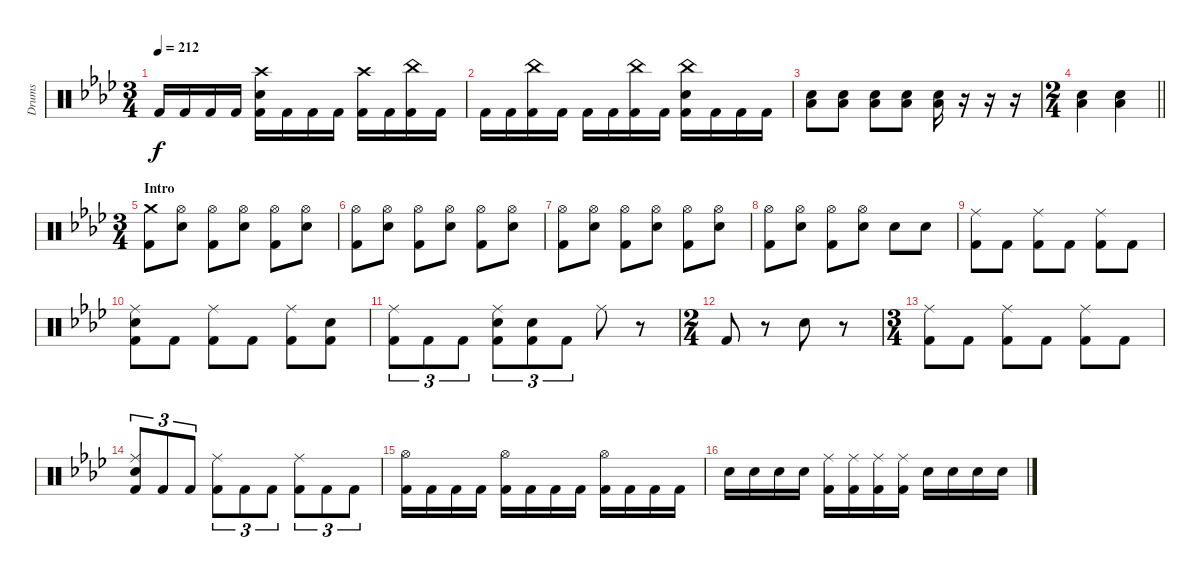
\bracketExtendMode groupsimilarinstruments
\otherSystemsTrackNameOrientation horizontal
\track ("Guyot Begin-Benoit" "Drums") {instrument percussion}
\staff {score}
\articulation defaults
\ts (3 4)
\tempo 212
\clef neutral
\ks ab "Kick (hit) 2"{acc forcenatural}.16{dy f beam Up} "Kick (hit) 2"{acc forcenatural}.16{beam Up} "Kick (hit) 2"{acc forcenatural}.16{beam Up} "Kick (hit) 2"{acc forcenatural}.16{beam Up}
("Crash high (hit)"{acc forcenatural} "Snare (hit) 2"{acc forcenatural} "Kick (hit) 2"{acc forcenatural}).16{beam Down} "Kick (hit) 2"{acc forcenatural}.16{beam Down} "Kick (hit) 2"{acc forcenatural}.16{beam Down} "Kick (hit) 2"{acc forcenatural}.16{beam Down} ("Crash high (hit)"{acc forcenatural} "Kick (hit) 2"{acc forcenatural}).16{beam Down} "Kick (hit) 2"{acc forcenatural}.16{beam Down} ("China (hit)"{acc forcenatural} "Kick (hit) 2"{acc forcenatural}).16{beam Down} "Kick (hit) 2"{acc forcenatural}.16{beam Down} |
"Kick (hit) 2"{acc forcenatural}.16{beam Down} "Kick (hit) 2"{acc forcenatural}.16{beam Down} ("China (hit)"{acc forcenatural} "Kick (hit) 2"{acc forcenatural}).16{beam Down} "Kick (hit) 2"{acc forcenatural}.16{beam Down} "Kick (hit) 2"{acc forcenatural}.16{beam Down} "Kick (hit) 2"{acc forcenatural}.16{beam Down} ("China (hit)"{acc forcenatural} "Kick (hit) 2"{acc forcenatural}).16{beam Down} "Kick (hit) 2"{acc forcenatural}.16{beam Down} ("China (hit)"{acc forcenatural} "Snare (hit) 2"{acc forcenatural} "Kick (hit) 2"{acc forcenatural}).16{beam Down} "Kick (hit) 2"{acc forcenatural}.16{beam Down} "Kick (hit) 2"{acc forcenatural}.16{beam Down} "Kick (hit) 2"{acc forcenatural}.16{beam Down} |
("Low Tom (hit)"{acc forcenatural} "Snare (hit) 2"{acc forcenatural}).8{beam Down} ("Low Tom (hit)"{acc forcenatural} "Snare (hit) 2"{acc forcenatural}).8{beam Down} ("Low Tom (hit)"{acc forcenatural} "Snare (hit) 2"{acc forcenatural}).8{beam Down} ("Low Tom (hit)"{acc forcenatural} "Snare (hit) 2"{acc forcenatural}).8{beam Down} ("Low Tom (hit)"{acc forcenatural} "Snare (hit) 2"{acc forcenatural}).16{beam Down} r.16{beam Down} r.16{beam Down} r.16{beam Down} |
\ts (2 4)
\beaming (8 2 2 2 2)
\barLineRight lightlight
("Low Tom (hit)"{acc forcenatural} "Snare (hit) 2"{acc forcenatural}).4{beam Down} ("Low Tom (hit)"{acc forcenatural} "Snare (hit) 2"{acc forcenatural}).4{beam Down} |
\ts (3 4)
\beaming (8 2 2 2 2)
\section ("" "Intro")
("Crash medium (hit)"{acc forcenatural} "Kick (hit) 2"{acc forcenatural}).8{beam Down} ("Hi-Hat (open)"{acc forcenatural} "Snare (hit) 2"{acc forcenatural}).8{beam Down} ("Hi-Hat (open)"{acc forcenatural} "Kick (hit) 2"{acc forcenatural}).8{beam Down} ("Hi-Hat (open)"{acc forcenatural} "Snare (hit) 2"{acc forcenatural}).8{beam Down} ("Hi-Hat (open)"{acc forcenatural} "Kick (hit) 2"{acc forcenatural}).8{beam Down} ("Hi-Hat (open)"{acc forcenatural} "Snare (hit) 2"{acc forcenatural}).8{beam Down} |
("Hi-Hat (open)"{acc forcenatural} "Kick (hit) 2"{acc forcenatural}).8{beam Down} ("Hi-Hat (open)"{acc forcenatural} "Snare (hit) 2"{acc forcenatural}).8{beam Down} ("Hi-Hat (open)"{acc forcenatural} "Kick (hit) 2"{acc forcenatural}).8{beam Down} ("Hi-Hat (open)"{acc forcenatural} "Snare (hit) 2"{acc forcenatural}).8{beam Down} ("Hi-Hat (open)"{acc forcenatural} "Kick (hit) 2"{acc forcenatural}).8{beam Down} ("Hi-Hat (open)"{acc forcenatural} "Snare (hit) 2"{acc forcenatural}).8{beam Down} |
("Hi-Hat (open)"{acc forcenatural} "Kick (hit) 2"{acc forcenatural}).8{beam Down} ("Hi-Hat (open)"{acc forcenatural} "Snare (hit) 2"{acc forcenatural}).8{beam Down} ("Hi-Hat (open)"{acc forcenatural} "Kick (hit) 2"{acc forcenatural}).8{beam Down} ("Hi-Hat (open)"{acc forcenatural} "Snare (hit) 2"{acc forcenatural}).8{beam Down} ("Hi-Hat (open)"{acc forcenatural} "Kick (hit) 2"{acc forcenatural}).8{beam Down} ("Hi-Hat (open)"{acc forcenatural} "Snare (hit) 2"{acc forcenatural}).8{beam Down} |
("Hi-Hat (open)"{acc forcenatural} "Kick (hit) 2"{acc forcenatural}).8{beam Down} ("Hi-Hat (open)"{acc forcenatural} "Snare (hit) 2"{acc forcenatural}).8{beam Down} ("Hi-Hat (open)"{acc forcenatural} "Kick (hit) 2"{acc forcenatural}).8{beam Down} ("Hi-Hat (open)"{acc forcenatural} "Snare (hit) 2"{acc forcenatural}).8{beam Down} "Snare (hit) 2"{acc forcenatural}.8{beam Down} "Snare (hit) 2"{acc forcenatural}.8{beam Down} |
("Ride (middle)"{acc forcenatural} "Kick (hit) 2"{acc forcenatural}).8{beam Down} "Kick (hit) 2"{acc forcenatural}.8{beam Down} ("Ride (middle)"{acc forcenatural} "Kick (hit) 2"{acc forcenatural}).8{beam Down} "Kick (hit) 2"{acc forcenatural}.8{beam Down} ("Ride (middle)"{acc forcenatural} "Kick (hit) 2"{acc forcenatural}).8{beam Down} "Kick (hit) 2"{acc forcenatural}.8{beam Down} |
("Ride (middle)"{acc forcenatural} "Snare (hit) 2"{acc forcenatural} "Kick (hit) 2"{acc forcenatural}).8{beam Down} "Kick (hit) 2"{acc forcenatural}.8{beam Down} ("Ride (middle)"{acc forcenatural} "Kick (hit) 2"{acc forcenatural}).8{beam Down} "Kick (hit) 2"{acc forcenatural}.8{beam Down} ("Ride (middle)"{acc forcenatural} "Kick (hit) 2"{acc forcenatural}).8{beam Down} ("Snare (hit) 2"{acc forcenatural} "Kick (hit) 2"{acc forcenatural}).8{beam Down} |
("Ride (middle)"{acc forcenatural} "Kick (hit) 2"{acc forcenatural}).8{tu (3 2) beam Down} "Kick (hit) 2"{acc forcenatural}.8{tu (3 2) beam Down} "Kick (hit) 2"{acc forcenatural}.8{tu (3 2) beam Down} ("Ride (middle)"{acc forcenatural} "Snare (hit) 2"{acc forcenatural} "Kick (hit) 2"{acc forcenatural}).8{tu (3 2) beam Down} ("Snare (hit) 2"{acc forcenatural} "Kick (hit) 2"{acc forcenatural}).8{tu (3 2) beam Down} "Kick (hit) 2"{acc forcenatural}.8{tu (3 2) beam Down} "Ride (middle)"{acc forcenatural}.8{beam Down} r.8{beam Down} |
\ts (2 4)
\beaming (8 2 2 2 2)
"Kick (hit) 2"{acc forcenatural}.8{beam Up} r.8{beam Up} "Snare (hit) 2"{acc forcenatural}.8{beam Down} r.8{beam Down} |
\ts (3 4)
\beaming (8 2 2 2 2)
("Ride (middle)"{acc forcenatural} "Kick (hit) 2"{acc forcenatural}).8{beam Down} "Kick (hit) 2"{acc forcenatural}.8{beam Down} ("Ride (middle)"{acc forcenatural} "Kick (hit) 2"{acc forcenatural}).8{beam Down} "Kick (hit) 2"{acc forcenatural}.8{beam Down} ("Ride (middle)"{acc forcenatural} "Kick (hit) 2"{acc forcenatural}).8{beam Down} "Kick (hit) 2"{acc forcenatural}.8{beam Down} |
("Ride (middle)"{acc forcenatural} "Snare (hit) 2"{acc forcenatural} "Kick (hit) 2"{acc forcenatural}).8{tu (3 2) beam Up} "Kick (hit) 2"{acc forcenatural}.8{tu (3 2) beam Up} "Kick (hit) 2"{acc forcenatural}.8{tu (3 2) beam Up} ("Ride (middle)"{acc forcenatural} "Kick (hit) 2"{acc forcenatural}).8{tu (3 2) beam Down} "Kick (hit) 2"{acc forcenatural}.8{tu (3 2) beam Down} "Kick (hit) 2"{acc forcenatural}.8{tu (3 2) beam Down} ("Ride (middle)"{acc forcenatural} "Kick (hit) 2"{acc forcenatural}).8{tu (3 2) beam Down} "Kick (hit) 2"{acc forcenatural}.8{tu (3 2) beam Down} "Kick (hit) 2"{acc forcenatural}.8{tu (3 2) beam Down} |
("Hi-Hat (open)"{acc forcenatural} "Kick (hit) 2"{acc forcenatural}).16{beam Down} "Kick (hit) 2"{acc forcenatural}.16{beam Down} "Kick (hit) 2"{acc forcenatural}.16{beam Down} "Kick (hit) 2"{acc forcenatural}.16{beam Down} ("Hi-Hat (open)"{acc forcenatural} "Kick (hit) 2"{acc forcenatural}).16{beam Down} "Kick (hit) 2"{acc forcenatural}.16{beam Down} "Kick (hit) 2"{acc forcenatural}.16{beam Down} "Kick (hit) 2"{acc forcenatural}.16{beam Down} ("Hi-Hat (open)"{acc forcenatural} "Kick (hit) 2"{acc forcenatural}).16{beam Down} "Kick (hit) 2"{acc forcenatural}.16{beam Down} "Kick (hit) 2"{acc forcenatural}.16{beam Down} "Kick (hit) 2"{acc forcenatural}.16{beam Down} |
"Snare (hit) 2"{acc forcenatural}.16{beam Down} "Snare (hit) 2"{acc forcenatural}.16{beam Down} "Snare (hit) 2"{acc forcenatural}.16{beam Down} "Snare (hit) 2"{acc forcenatural}.16{beam Down} ("Ride (middle)"{acc forcenatural} "Kick (hit) 2"{acc forcenatural}).16{beam Down} ("Ride (middle)"{acc forcenatural} "Kick (hit) 2"{acc forcenatural}).16{beam Down} ("Ride (middle)"{acc forcenatural} "Kick (hit) 2"{acc forcenatural}).16{beam Down} ("Ride (middle)"{acc forcenatural} "Kick (hit) 2"{acc forcenatural}).16{beam Down} "Snare (hit) 2"{acc forcenatural}.16{beam Down} "Snare (hit) 2"{acc forcenatural}.16{beam Down} "Snare (hit) 2"{acc forcenatural}.16{beam Down} "Snare (hit) 2"{acc forcenatural}.16{beam Down}
